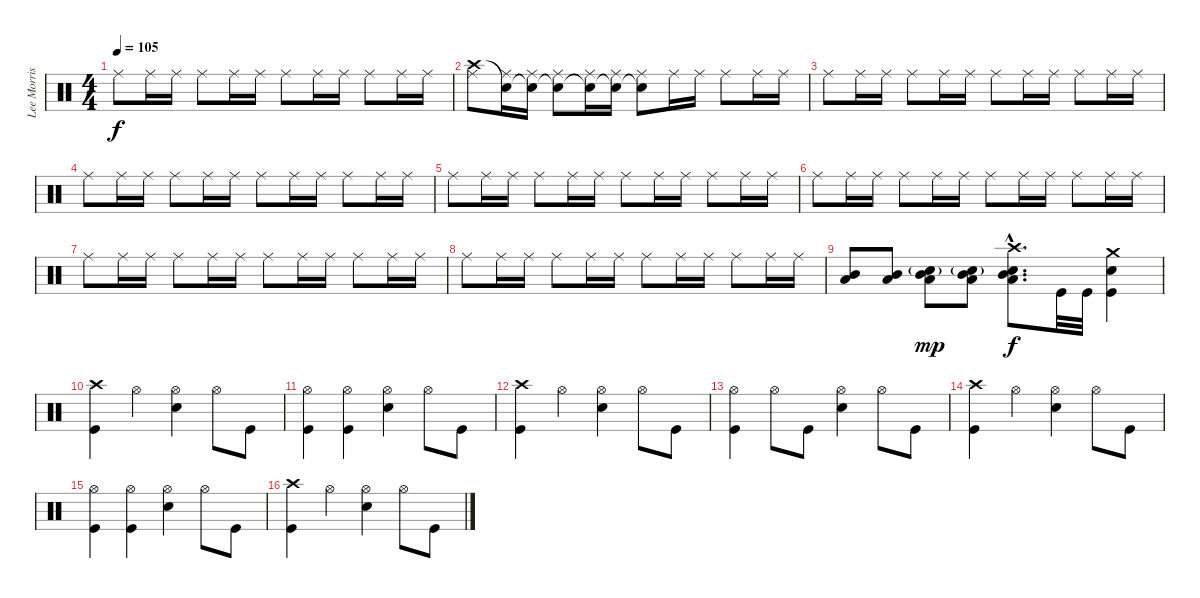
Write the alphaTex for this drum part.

\track ("Lee Morris" "Lee Morris") {instrument percussion}
\staff {score}
\articulation defaults
\ts (4 4)
\tempo 105
\clef neutral
\ks c "Ride (middle)".8{dy f} "Ride (middle)".16 "Ride (middle)".16 "Ride (middle)".8 "Ride (middle)".16 "Ride (middle)".16 "Ride (middle)".8 "Ride (middle)".16 "Ride (middle)".16 "Ride (middle)".8 "Ride (middle)".16 "Ride (middle)".16
|
("Ride (middle)" "Crash high (hit)").8 ("Ride (middle)" "Snare (hit)"{t}).16 ("Ride (middle)" "Snare (hit)"{t}).16 ("Ride (middle)" "Snare (hit)"{t}).8 ("Ride (middle)" "Snare (hit)"{t}).16 ("Ride (middle)" "Snare (hit)"{t}).16 ("Ride (middle)" "Snare (hit)"{t}).8 "Ride (middle)".16 "Ride (middle)".16 "Ride (middle)".8 "Ride (middle)".16 "Ride (middle)".16 |
"Ride (middle)".8 "Ride (middle)".16 "Ride (middle)".16 "Ride (middle)".8 "Ride (middle)".16 "Ride (middle)".16 "Ride (middle)".8 "Ride (middle)".16 "Ride (middle)".16 "Ride (middle)".8 "Ride (middle)".16 "Ride (middle)".16 |
"Ride (middle)".8 "Ride (middle)".16 "Ride (middle)".16 "Ride (middle)".8 "Ride (middle)".16 "Ride (middle)".16 "Ride (middle)".8 "Ride (middle)".16 "Ride (middle)".16 "Ride (middle)".8 "Ride (middle)".16 "Ride (middle)".16 |
"Ride (middle)".8 "Ride (middle)".16 "Ride (middle)".16 "Ride (middle)".8 "Ride (middle)".16 "Ride (middle)".16 "Ride (middle)".8 "Ride (middle)".16 "Ride (middle)".16 "Ride (middle)".8 "Ride (middle)".16 "Ride (middle)".16 |
"Ride (middle)".8 "Ride (middle)".16 "Ride (middle)".16 "Ride (middle)".8 "Ride (middle)".16 "Ride (middle)".16 "Ride (middle)".8 "Ride (middle)".16 "Ride (middle)".16 "Ride (middle)".8 "Ride (middle)".16 "Ride (middle)".16 |
"Ride (middle)".8 "Ride (middle)".16 "Ride (middle)".16 "Ride (middle)".8 "Ride (middle)".16 "Ride (middle)".16 "Ride (middle)".8 "Ride (middle)".16 "Ride (middle)".16 "Ride (middle)".8 "Ride (middle)".16 "Ride (middle)".16 |
"Ride (middle)".8 "Ride (middle)".16 "Ride (middle)".16 "Ride (middle)".8 "Ride (middle)".16 "Ride (middle)".16 "Ride (middle)".8 "Ride (middle)".16 "Ride (middle)".16 "Ride (middle)".8 "Ride (middle)".16 "Ride (middle)".16 |
("Mid Tom (hit)" "Low Tom (hit)").8 ("Mid Tom (hit)" "Low Tom (hit)").8 ("Snare (hit) 2"{g} "Mid Tom (hit)" "Low Tom (hit)").8{dy mp} ("Snare (hit) 2"{g} "Mid Tom (hit)" "Low Tom (hit)").8 ("Snare (hit) 2"{hac} "Mid Tom (hit)"{hac} "Low Tom (hit)"{hac} "Crash high (hit)"{hac}).8{d dy f} "Kick (hit)".32 "Kick (hit)".32 ("Kick (hit)" "Snare (hit) 2" "Crash medium (hit)").4 |
("Kick (hit)" "Crash high (hit)").4 "Hi-Hat (open)".4 ("Snare (hit) 2" "Hi-Hat (open)").4 "Hi-Hat (open)".8 "Kick (hit)".8 |
("Kick (hit)" "Hi-Hat (open)").4 ("Kick (hit)" "Hi-Hat (open)").4 ("Snare (hit) 2" "Hi-Hat (open)").4 "Hi-Hat (open)".8 "Kick (hit)".8 |
("Kick (hit)" "Crash high (hit)").4 "Hi-Hat (open)".4 ("Snare (hit) 2" "Hi-Hat (open)").4 "Hi-Hat (open)".8 "Kick (hit)".8 |
("Kick (hit)" "Hi-Hat (open)").4 "Hi-Hat (open)".8 "Kick (hit)".8 ("Snare (hit) 2" "Hi-Hat (open)").4 "Hi-Hat (open)".8 "Kick (hit)".8 |
("Kick (hit)" "Crash high (hit)").4 "Hi-Hat (open)".4 ("Snare (hit) 2" "Hi-Hat (open)").4 "Hi-Hat (open)".8 "Kick (hit)".8 |
("Kick (hit)" "Hi-Hat (open)").4 ("Kick (hit)" "Hi-Hat (open)").4 ("Snare (hit) 2" "Hi-Hat (open)").4 "Hi-Hat (open)".8 "Kick (hit)".8 |
("Kick (hit)" "Crash high (hit)").4 "Hi-Hat (open)".4 ("Snare (hit) 2" "Hi-Hat (open)").4 "Hi-Hat (open)".8 "Kick (hit)".8
